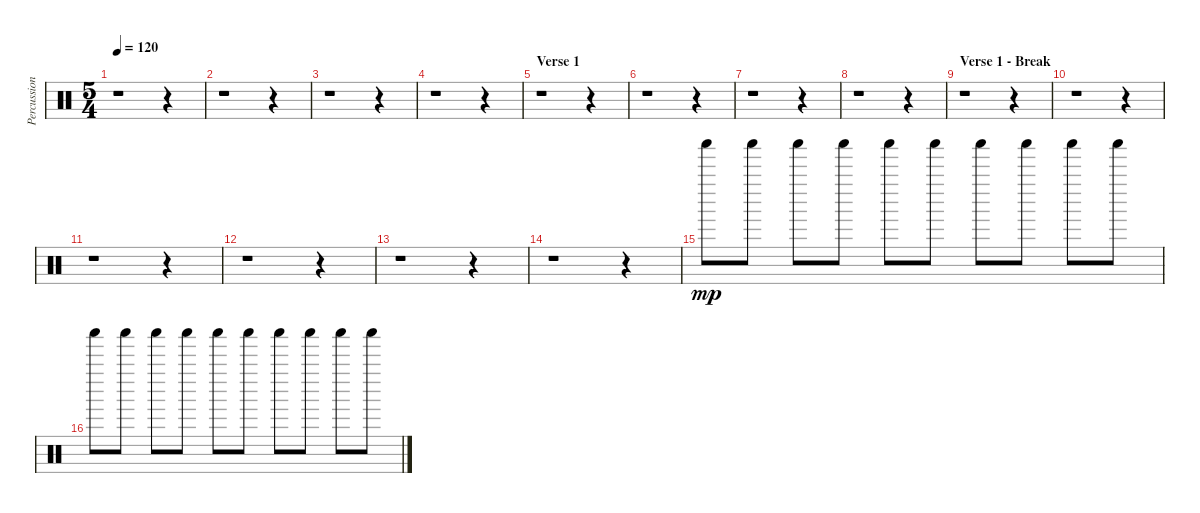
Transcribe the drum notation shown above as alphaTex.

\track ("Percussions" "Percussion") {instrument percussion}
\staff {score}
\articulation defaults
\ts (5 4)
\tempo 120
\clef neutral
\ks c
r.1{dy mp} r.4 |
r.1 r.4 |
r.1 r.4 |
r.1 r.4 |
\section ("" "Verse 1")
r.1 r.4 |
r.1 r.4 |
r.1 r.4 |
r.1 r.4 |
\section ("" "Verse 1 - Break")
r.1 r.4 |
r.1 r.4 |
r.1 r.4 |
r.1 r.4 |
r.1 r.4 |
r.1 r.4 |
"Shaker (hit)".8 "Shaker (hit)".8 "Shaker (hit)".8 "Shaker (hit)".8 "Shaker (hit)".8 "Shaker (hit)".8 "Shaker (hit)".8 "Shaker (hit)".8 "Shaker (hit)".8 "Shaker (hit)".8 |
"Shaker (hit)".8 "Shaker (hit)".8 "Shaker (hit)".8 "Shaker (hit)".8 "Shaker (hit)".8 "Shaker (hit)".8 "Shaker (hit)".8 "Shaker (hit)".8 "Shaker (hit)".8 "Shaker (hit)".8
